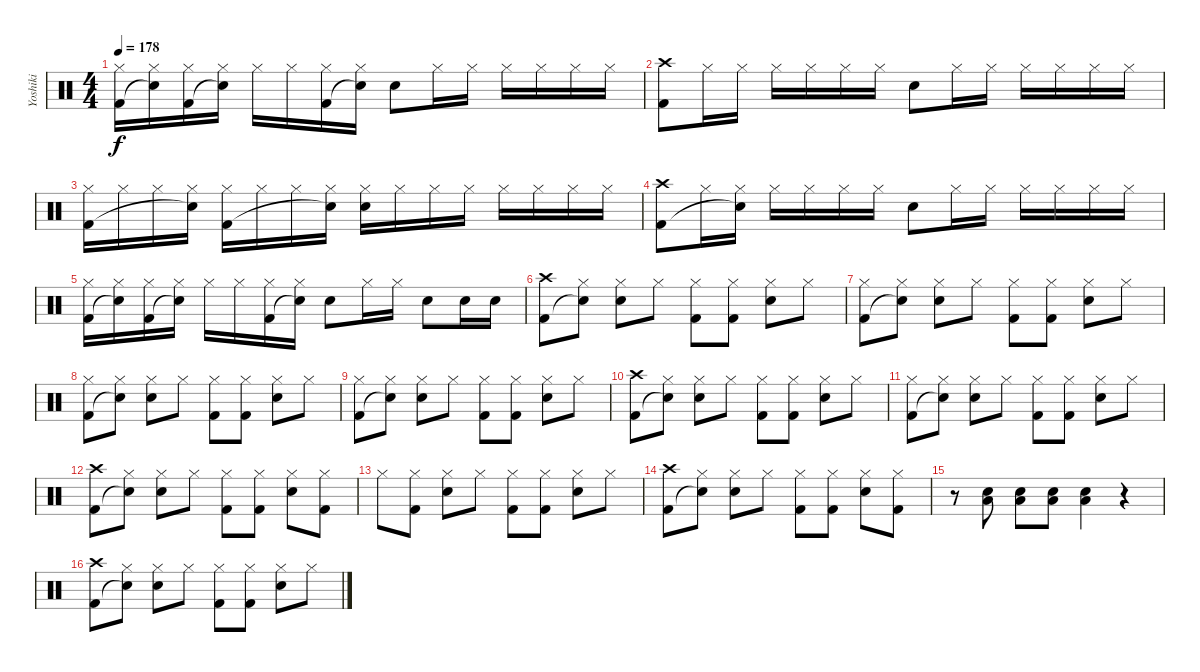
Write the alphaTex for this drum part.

\track ("Yoshiki" "Yoshiki") {instrument percussion}
\staff {score}
\articulation defaults
\ts (4 4)
\tempo 178
\clef neutral
\ks c
("Hi-Hat (closed)" "Kick (hit) 2").16{dy f} ("Hi-Hat (closed)" "Snare (hit)"{t}).16 ("Hi-Hat (closed)" "Kick (hit) 2").16 ("Hi-Hat (closed)" "Snare (hit)"{t}).16 "Hi-Hat (closed)".16 "Hi-Hat (closed)".16 ("Hi-Hat (closed)" "Kick (hit) 2").16 ("Hi-Hat (closed)" "Snare (hit)"{t}).16 "Snare (hit) 2".8 "Hi-Hat (closed)".16 "Hi-Hat (closed)".16 "Hi-Hat (closed)".16 "Hi-Hat (closed)".16 "Hi-Hat (closed)".16 "Hi-Hat (closed)".16 |
("Crash high (hit)" "Kick (hit) 2").8 "Hi-Hat (closed)".16 "Hi-Hat (closed)".16 "Hi-Hat (closed)".16 "Hi-Hat (closed)".16 "Hi-Hat (closed)".16 "Hi-Hat (closed)".16 "Snare (hit) 2".8 "Hi-Hat (closed)".16 "Hi-Hat (closed)".16 "Hi-Hat (closed)".16 "Hi-Hat (closed)".16 "Hi-Hat (closed)".16 "Hi-Hat (closed)".16 |
("Hi-Hat (closed)" "Kick (hit) 2").16 "Hi-Hat (closed)".16 "Hi-Hat (closed)".16 ("Hi-Hat (closed)" "Snare (hit)"{t}).16 ("Hi-Hat (closed)" "Kick (hit) 2").16 "Hi-Hat (closed)".16 "Hi-Hat (closed)".16 ("Hi-Hat (closed)" "Snare (hit)"{t}).16 ("Hi-Hat (closed)" "Snare (hit) 2").16 "Hi-Hat (closed)".16 "Hi-Hat (closed)".16 "Hi-Hat (closed)".16 "Hi-Hat (closed)".16 "Hi-Hat (closed)".16 "Hi-Hat (closed)".16 "Hi-Hat (closed)".16 |
("Crash high (hit)" "Kick (hit) 2").8 "Hi-Hat (closed)".16 ("Hi-Hat (closed)" "Snare (hit)"{t}).16 "Hi-Hat (closed)".16 "Hi-Hat (closed)".16 "Hi-Hat (closed)".16 "Hi-Hat (closed)".16 "Snare (hit) 2".8 "Hi-Hat (closed)".16 "Hi-Hat (closed)".16 "Hi-Hat (closed)".16 "Hi-Hat (closed)".16 "Hi-Hat (closed)".16 "Hi-Hat (closed)".16 |
("Hi-Hat (closed)" "Kick (hit) 2").16 ("Hi-Hat (closed)" "Snare (hit)"{t}).16 ("Hi-Hat (closed)" "Kick (hit) 2").16 ("Hi-Hat (closed)" "Snare (hit)"{t}).16 "Hi-Hat (closed)".16 "Hi-Hat (closed)".16 ("Hi-Hat (closed)" "Kick (hit) 2").16 ("Hi-Hat (closed)" "Snare (hit)"{t}).16 "Snare (hit) 2".8 "Hi-Hat (closed)".16 "Hi-Hat (closed)".16 "Snare (hit) 2".8 "Snare (hit) 2".16 "Snare (hit) 2".16 |
("Crash high (hit)" "Kick (hit) 2").8 ("Hi-Hat (closed)" "Snare (hit)"{t}).8 ("Hi-Hat (closed)" "Snare (hit) 2").8 "Hi-Hat (closed)".8 ("Hi-Hat (closed)" "Kick (hit) 2").8 ("Hi-Hat (closed)" "Kick (hit) 2").8 ("Hi-Hat (closed)" "Snare (hit) 2").8 "Hi-Hat (closed)".8 |
("Hi-Hat (closed)" "Kick (hit) 2").8 ("Hi-Hat (closed)" "Snare (hit)"{t}).8 ("Hi-Hat (closed)" "Snare (hit) 2").8 "Hi-Hat (closed)".8 ("Hi-Hat (closed)" "Kick (hit) 2").8 ("Hi-Hat (closed)" "Kick (hit) 2").8 ("Hi-Hat (closed)" "Snare (hit) 2").8 "Hi-Hat (closed)".8 |
("Hi-Hat (closed)" "Kick (hit) 2").8 ("Hi-Hat (closed)" "Snare (hit)"{t}).8 ("Hi-Hat (closed)" "Snare (hit) 2").8 "Hi-Hat (closed)".8 ("Hi-Hat (closed)" "Kick (hit) 2").8 ("Hi-Hat (closed)" "Kick (hit) 2").8 ("Hi-Hat (closed)" "Snare (hit) 2").8 "Hi-Hat (closed)".8 |
("Hi-Hat (closed)" "Kick (hit) 2").8 ("Hi-Hat (closed)" "Snare (hit)"{t}).8 ("Hi-Hat (closed)" "Snare (hit) 2").8 "Hi-Hat (closed)".8 ("Hi-Hat (closed)" "Kick (hit) 2").8 ("Hi-Hat (closed)" "Kick (hit) 2").8 ("Hi-Hat (closed)" "Snare (hit) 2").8 "Hi-Hat (closed)".8 |
("Crash high (hit)" "Kick (hit) 2").8 ("Hi-Hat (closed)" "Snare (hit)"{t}).8 ("Hi-Hat (closed)" "Snare (hit) 2").8 "Hi-Hat (closed)".8 ("Hi-Hat (closed)" "Kick (hit) 2").8 ("Hi-Hat (closed)" "Kick (hit) 2").8 ("Hi-Hat (closed)" "Snare (hit) 2").8 "Hi-Hat (closed)".8 |
("Hi-Hat (closed)" "Kick (hit) 2").8 ("Hi-Hat (closed)" "Snare (hit)"{t}).8 ("Hi-Hat (closed)" "Snare (hit) 2").8 "Hi-Hat (closed)".8 ("Hi-Hat (closed)" "Kick (hit) 2").8 ("Hi-Hat (closed)" "Kick (hit) 2").8 ("Hi-Hat (closed)" "Snare (hit) 2").8 "Hi-Hat (closed)".8 |
("Crash high (hit)" "Kick (hit) 2").8 ("Hi-Hat (closed)" "Snare (hit)"{t}).8 ("Hi-Hat (closed)" "Snare (hit) 2").8 "Hi-Hat (closed)".8 ("Hi-Hat (closed)" "Kick (hit) 2").8 ("Hi-Hat (closed)" "Kick (hit) 2").8 ("Hi-Hat (closed)" "Snare (hit) 2").8 ("Hi-Hat (closed)" "Kick (hit) 2").8 |
"Hi-Hat (closed)".8 ("Hi-Hat (closed)" "Kick (hit) 2").8 ("Hi-Hat (closed)" "Snare (hit) 2").8 "Hi-Hat (closed)".8 ("Hi-Hat (closed)" "Kick (hit) 2").8 ("Hi-Hat (closed)" "Kick (hit) 2").8 ("Hi-Hat (closed)" "Snare (hit) 2").8 "Hi-Hat (closed)".8 |
("Crash high (hit)" "Kick (hit) 2").8 ("Hi-Hat (closed)" "Snare (hit)"{t}).8 ("Hi-Hat (closed)" "Snare (hit) 2").8 "Hi-Hat (closed)".8 ("Hi-Hat (closed)" "Kick (hit) 2").8 ("Hi-Hat (closed)" "Kick (hit) 2").8 ("Hi-Hat (closed)" "Snare (hit) 2").8 ("Hi-Hat (closed)" "Kick (hit) 2").8 |
r.8 ("Snare (hit) 2" "Low Floor Tom (hit)").8 ("Snare (hit) 2" "Low Floor Tom (hit)").8 ("Snare (hit) 2" "Low Floor Tom (hit)").8 ("Snare (hit) 2" "Low Floor Tom (hit)").4 r.4 |
("Crash high (hit)" "Kick (hit) 2").8 ("Hi-Hat (closed)" "Snare (hit)"{t}).8 ("Hi-Hat (closed)" "Snare (hit) 2").8 "Hi-Hat (closed)".8 ("Hi-Hat (closed)" "Kick (hit) 2").8 ("Hi-Hat (closed)" "Kick (hit) 2").8 ("Hi-Hat (closed)" "Snare (hit) 2").8 "Hi-Hat (closed)".8
